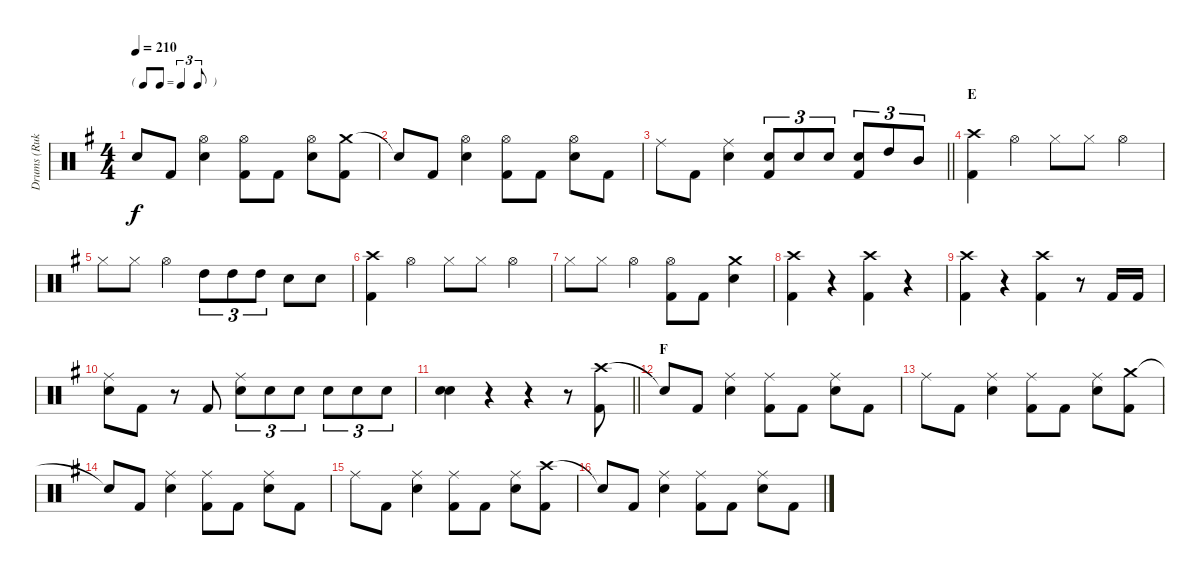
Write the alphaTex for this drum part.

\track ("Drums (Ruka)" "Drums (Ruk") {instrument percussion}
\staff {score}
\articulation defaults
\ts (4 4)
\tf triplet8th
\tempo 210
\clef neutral
\ks g "Snare (hit)"{t}.8{dy f} "Kick (hit) 2".8
("Hi-Hat (open)" "Electric Snare (hit)").4 ("Hi-Hat (open)" "Kick (hit) 2").8 "Kick (hit) 2".8 ("Hi-Hat (open)" "Electric Snare (hit)").8 ("Crash medium (hit)" "Kick (hit) 2").8 |
"Snare (hit)"{t}.8 "Kick (hit) 2".8 ("Hi-Hat (open)" "Electric Snare (hit)").4 ("Hi-Hat (open)" "Kick (hit) 2").8 "Kick (hit) 2".8 ("Hi-Hat (open)" "Electric Snare (hit)").8 "Kick (hit) 2".8 |
\barLineRight lightlight "Ride (middle)".8 "Kick (hit) 2".8
("Ride (middle)" "Electric Snare (hit)").4 ("Electric Snare (hit)" "Kick (hit) 2").8{tu (3 2)} "Electric Snare (hit)".8{tu (3 2)} "Electric Snare (hit)".8{tu (3 2)} ("Electric Snare (hit)" "Kick (hit) 2").8{tu (3 2)} "High Tom (hit)".8{tu (3 2)} "Mid Tom (hit)".8{tu (3 2)} |
\section ("" "E")
("Crash high (hit)" "Kick (hit) 2").4 "Hi-Hat (open)".4 "Hi-Hat (closed)".8 "Hi-Hat (closed)".8 "Hi-Hat (open)".4 |
"Hi-Hat (closed)".8 "Hi-Hat (closed)".8 "Hi-Hat (open)".4 "High Tom (hit)".8{tu (3 2)} "High Tom (hit)".8{tu (3 2)} "High Tom (hit)".8{tu (3 2)} "Electric Snare (hit)".8 "Electric Snare (hit)".8 |
("Crash high (hit)" "Kick (hit) 2").4 "Hi-Hat (open)".4 "Hi-Hat (closed)".8 "Hi-Hat (closed)".8 "Hi-Hat (open)".4 |
"Hi-Hat (closed)".8 "Hi-Hat (closed)".8 "Hi-Hat (open)".4 ("Hi-Hat (open)" "Kick (hit) 2").8 "Kick (hit) 2".8 ("Crash medium (hit)" "Electric Snare (hit)").4 |
("Crash high (hit)" "Kick (hit) 2").4 r.4 ("Crash high (hit)" "Kick (hit) 2").4 r.4 |
("Crash high (hit)" "Kick (hit) 2").4 r.4 ("Crash high (hit)" "Kick (hit) 2").4 r.8 "Kick (hit) 2".16 "Kick (hit) 2".16 |
("Ride (middle)" "Electric Snare (hit)").8 "Kick (hit) 2".8 r.8 "Kick (hit) 2".8 ("Ride (middle)" "Electric Snare (hit)").8{tu (3 2)} "Electric Snare (hit)".8{tu (3 2)} "Electric Snare (hit)".8{tu (3 2)} "Electric Snare (hit)".8{tu (3 2)} "Electric Snare (hit)".8{tu (3 2)} "Electric Snare (hit)".8{tu (3 2)} |
\barLineRight lightlight
("Electric Snare (hit)" "Electric Snare (hit)").4 r.4 r.4 r.8 ("Crash high (hit)" "Kick (hit) 2").8 |
\section ("" "F")
"Snare (hit)"{t}.8 "Kick (hit) 2".8 ("Ride (middle)" "Electric Snare (hit)").4 ("Ride (middle)" "Kick (hit) 2").8 "Kick (hit) 2".8 ("Ride (middle)" "Electric Snare (hit)").8 "Kick (hit) 2".8 |
"Ride (middle)".8 "Kick (hit) 2".8 ("Ride (middle)" "Electric Snare (hit)").4 ("Ride (middle)" "Kick (hit) 2").8 "Kick (hit) 2".8 ("Ride (middle)" "Electric Snare (hit)").8 ("Crash medium (hit)" "Kick (hit) 2").8 |
"Snare (hit)"{t}.8 "Kick (hit) 2".8 ("Ride (middle)" "Electric Snare (hit)").4 ("Ride (middle)" "Kick (hit) 2").8 "Kick (hit) 2".8 ("Ride (middle)" "Electric Snare (hit)").8 "Kick (hit) 2".8 |
"Ride (middle)".8 "Kick (hit) 2".8 ("Ride (middle)" "Electric Snare (hit)").4 ("Ride (middle)" "Kick (hit) 2").8 "Kick (hit) 2".8 ("Ride (middle)" "Electric Snare (hit)").8 ("Crash high (hit)" "Kick (hit) 2").8 |
"Snare (hit)"{t}.8 "Kick (hit) 2".8 ("Ride (middle)" "Electric Snare (hit)").4 ("Ride (middle)" "Kick (hit) 2").8 "Kick (hit) 2".8 ("Ride (middle)" "Electric Snare (hit)").8 "Kick (hit) 2".8
